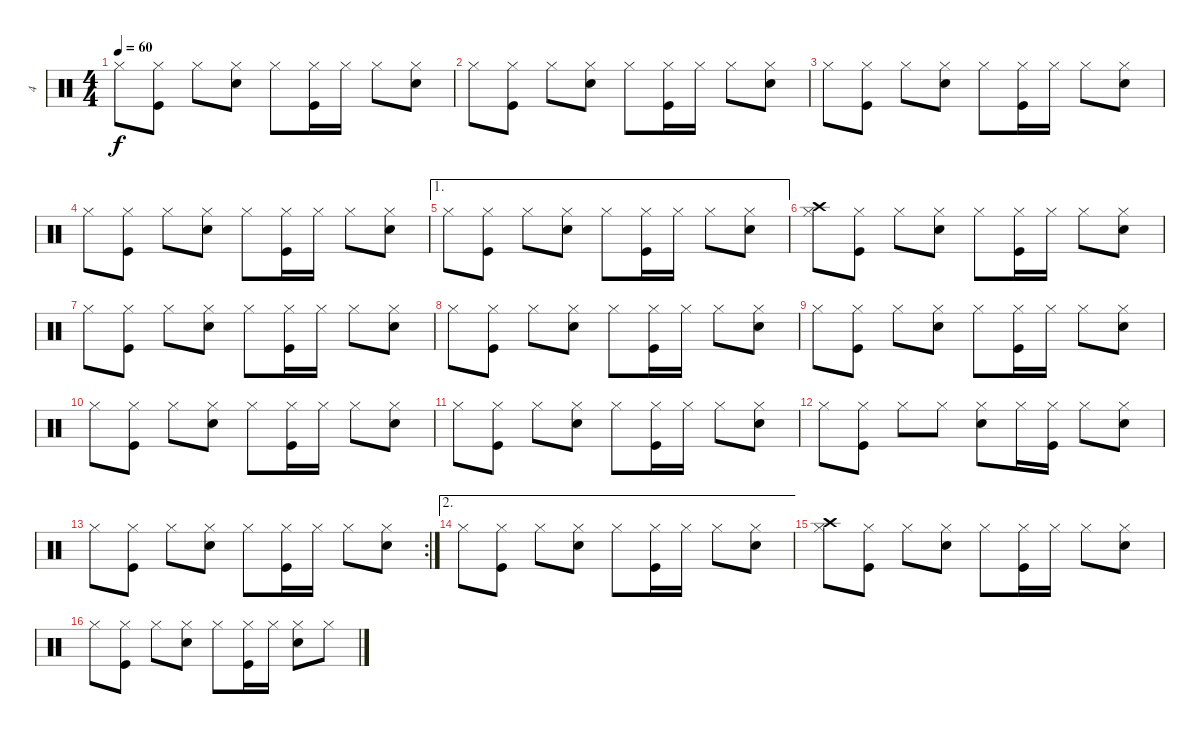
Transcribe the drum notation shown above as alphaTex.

\track ("4" "4") {instrument percussion}
\staff {score}
\articulation defaults
\ts (4 4)
\tempo 60
\clef neutral
\ks c "Hi-Hat (closed)".8{dy f}
("Kick (hit)" "Hi-Hat (closed)").8 "Hi-Hat (closed)".8 ("Hand Clap (hit)" "Hi-Hat (closed)").8 "Hi-Hat (closed)".8 ("Kick (hit)" "Hi-Hat (closed)").16 "Hi-Hat (closed)".16 "Hi-Hat (closed)".8 ("Hand Clap (hit)" "Hi-Hat (closed)").8 |
"Hi-Hat (closed)".8 ("Kick (hit)" "Hi-Hat (closed)").8 "Hi-Hat (closed)".8 ("Hand Clap (hit)" "Hi-Hat (closed)").8 "Hi-Hat (closed)".8 ("Kick (hit)" "Hi-Hat (closed)").16 "Hi-Hat (closed)".16 "Hi-Hat (closed)".8 ("Hand Clap (hit)" "Hi-Hat (closed)").8 |
"Hi-Hat (closed)".8 ("Kick (hit)" "Hi-Hat (closed)").8 "Hi-Hat (closed)".8 ("Hand Clap (hit)" "Hi-Hat (closed)").8 "Hi-Hat (closed)".8 ("Kick (hit)" "Hi-Hat (closed)").16 "Hi-Hat (closed)".16 "Hi-Hat (closed)".8 ("Hand Clap (hit)" "Hi-Hat (closed)").8 |
"Hi-Hat (closed)".8 ("Kick (hit)" "Hi-Hat (closed)").8 "Hi-Hat (closed)".8 ("Hand Clap (hit)" "Hi-Hat (closed)").8 "Hi-Hat (closed)".8 ("Kick (hit)" "Hi-Hat (closed)").16 "Hi-Hat (closed)".16 "Hi-Hat (closed)".8 ("Hand Clap (hit)" "Hi-Hat (closed)").8 |
\ae 1 "Hi-Hat (closed)".8
("Kick (hit)" "Hi-Hat (closed)").8 "Hi-Hat (closed)".8 ("Hand Clap (hit)" "Hi-Hat (closed)").8 "Hi-Hat (closed)".8 ("Kick (hit)" "Hi-Hat (closed)").16 "Hi-Hat (closed)".16 "Hi-Hat (closed)".8 ("Hand Clap (hit)" "Hi-Hat (closed)").8 |
("Crash high (hit)" "Hi-Hat (closed)").8 ("Kick (hit)" "Hi-Hat (closed)").8 "Hi-Hat (closed)".8 ("Hand Clap (hit)" "Hi-Hat (closed)").8 "Hi-Hat (closed)".8 ("Kick (hit)" "Hi-Hat (closed)").16 "Hi-Hat (closed)".16 "Hi-Hat (closed)".8 ("Hand Clap (hit)" "Hi-Hat (closed)").8 |
"Hi-Hat (closed)".8 ("Kick (hit)" "Hi-Hat (closed)").8 "Hi-Hat (closed)".8 ("Hand Clap (hit)" "Hi-Hat (closed)").8 "Hi-Hat (closed)".8 ("Kick (hit)" "Hi-Hat (closed)").16 "Hi-Hat (closed)".16 "Hi-Hat (closed)".8 ("Hand Clap (hit)" "Hi-Hat (closed)").8 |
"Hi-Hat (closed)".8 ("Kick (hit)" "Hi-Hat (closed)").8 "Hi-Hat (closed)".8 ("Hand Clap (hit)" "Hi-Hat (closed)").8 "Hi-Hat (closed)".8 ("Kick (hit)" "Hi-Hat (closed)").16 "Hi-Hat (closed)".16 "Hi-Hat (closed)".8 ("Hand Clap (hit)" "Hi-Hat (closed)").8 |
"Hi-Hat (closed)".8 ("Kick (hit)" "Hi-Hat (closed)").8 "Hi-Hat (closed)".8 ("Hand Clap (hit)" "Hi-Hat (closed)").8 "Hi-Hat (closed)".8 ("Kick (hit)" "Hi-Hat (closed)").16 "Hi-Hat (closed)".16 "Hi-Hat (closed)".8 ("Hand Clap (hit)" "Hi-Hat (closed)").8 |
"Hi-Hat (closed)".8 ("Kick (hit)" "Hi-Hat (closed)").8 "Hi-Hat (closed)".8 ("Hand Clap (hit)" "Hi-Hat (closed)").8 "Hi-Hat (closed)".8 ("Kick (hit)" "Hi-Hat (closed)").16 "Hi-Hat (closed)".16 "Hi-Hat (closed)".8 ("Hand Clap (hit)" "Hi-Hat (closed)").8 |
"Hi-Hat (closed)".8 ("Kick (hit)" "Hi-Hat (closed)").8 "Hi-Hat (closed)".8 ("Hand Clap (hit)" "Hi-Hat (closed)").8 "Hi-Hat (closed)".8 ("Kick (hit)" "Hi-Hat (closed)").16 "Hi-Hat (closed)".16 "Hi-Hat (closed)".8 ("Hand Clap (hit)" "Hi-Hat (closed)").8 |
"Hi-Hat (closed)".8 ("Kick (hit)" "Hi-Hat (closed)").8 "Hi-Hat (closed)".8 "Hi-Hat (closed)".8 ("Hand Clap (hit)" "Hi-Hat (closed)").8 "Hi-Hat (closed)".16 ("Kick (hit)" "Hi-Hat (closed)").16 "Hi-Hat (closed)".8 ("Hand Clap (hit)" "Hi-Hat (closed)").8 |
\rc 2 "Hi-Hat (closed)".8
("Kick (hit)" "Hi-Hat (closed)").8 "Hi-Hat (closed)".8 ("Hand Clap (hit)" "Hi-Hat (closed)").8 "Hi-Hat (closed)".8 ("Kick (hit)" "Hi-Hat (closed)").16 "Hi-Hat (closed)".16 "Hi-Hat (closed)".8 ("Hand Clap (hit)" "Hi-Hat (closed)").8 |
\ae 2 "Hi-Hat (closed)".8
("Kick (hit)" "Hi-Hat (closed)").8 "Hi-Hat (closed)".8 ("Hand Clap (hit)" "Hi-Hat (closed)").8 "Hi-Hat (closed)".8 ("Kick (hit)" "Hi-Hat (closed)").16 "Hi-Hat (closed)".16 "Hi-Hat (closed)".8 ("Hand Clap (hit)" "Hi-Hat (closed)").8 |
("Crash high (hit)" "Hi-Hat (closed)").8 ("Kick (hit)" "Hi-Hat (closed)").8 "Hi-Hat (closed)".8 ("Hand Clap (hit)" "Hi-Hat (closed)").8 "Hi-Hat (closed)".8 ("Kick (hit)" "Hi-Hat (closed)").16 "Hi-Hat (closed)".16 "Hi-Hat (closed)".8 ("Hand Clap (hit)" "Hi-Hat (closed)").8 |
"Hi-Hat (closed)".8 ("Kick (hit)" "Hi-Hat (closed)").8 "Hi-Hat (closed)".8 ("Hand Clap (hit)" "Hi-Hat (closed)").8 "Hi-Hat (closed)".8 ("Kick (hit)" "Hi-Hat (closed)").16 "Hi-Hat (closed)".16 ("Hand Clap (hit)" "Hi-Hat (closed)").8 "Hi-Hat (closed)".8
